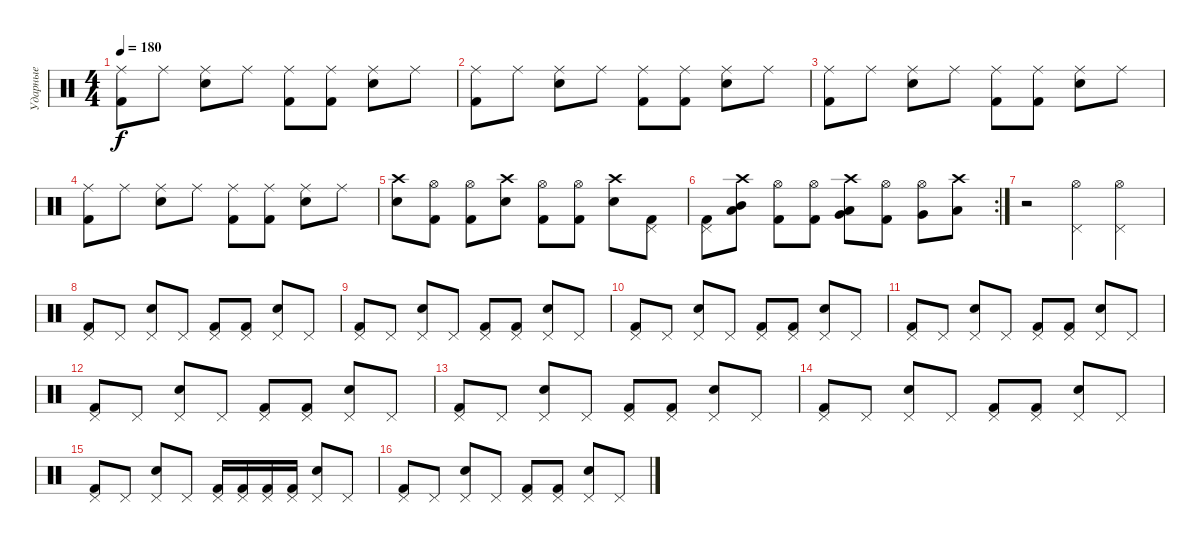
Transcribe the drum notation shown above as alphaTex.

\track ("Ударные" "Ударные") {instrument percussion}
\staff {score}
\articulation defaults
\ts (4 4)
\tempo 180
\clef neutral
\ks c
("Kick (hit) 2" "Ride (middle)").8{dy f} "Ride (middle)".8 ("Electric Snare (hit)" "Ride (middle)").8 "Ride (middle)".8 ("Ride (middle)" "Kick (hit) 2").8 ("Ride (middle)" "Kick (hit) 2").8 ("Electric Snare (hit)" "Ride (middle)").8 "Ride (middle)".8 |
("Kick (hit) 2" "Ride (middle)").8 "Ride (middle)".8 ("Electric Snare (hit)" "Ride (middle)").8 "Ride (middle)".8 ("Ride (middle)" "Kick (hit) 2").8 ("Ride (middle)" "Kick (hit) 2").8 ("Electric Snare (hit)" "Ride (middle)").8 "Ride (middle)".8 |
("Kick (hit) 2" "Ride (middle)").8 "Ride (middle)".8 ("Electric Snare (hit)" "Ride (middle)").8 "Ride (middle)".8 ("Ride (middle)" "Kick (hit) 2").8 ("Ride (middle)" "Kick (hit) 2").8 ("Electric Snare (hit)" "Ride (middle)").8 "Ride (middle)".8 |
("Kick (hit) 2" "Ride (middle)").8 "Ride (middle)".8 ("Electric Snare (hit)" "Ride (middle)").8 "Ride (middle)".8 ("Ride (middle)" "Kick (hit) 2").8 ("Ride (middle)" "Kick (hit) 2").8 ("Electric Snare (hit)" "Ride (middle)").8 "Ride (middle)".8 |
("Electric Snare (hit)" "Crash high (hit)").8 ("Kick (hit) 2" "Hi-Hat (open)").8 ("Kick (hit) 2" "Hi-Hat (open)").8 ("Electric Snare (hit)" "Crash high (hit)").8 ("Kick (hit) 2" "Hi-Hat (open)").8 ("Kick (hit) 2" "Hi-Hat (open)").8 ("Electric Snare (hit)" "Crash high (hit)").8 ("Pedal Hi-Hat (hit)" "Kick (hit) 2").8 |
\rc 2
("Kick (hit) 2" "Pedal Hi-Hat (hit)").8 ("Low Tom (hit)" "Crash high (hit)" "Mid Tom (hit)").8 ("Kick (hit) 2" "Hi-Hat (open)").8 ("Kick (hit) 2" "Hi-Hat (open)").8 ("Very Low Tom (hit)" "Crash high (hit)" "Low Tom (hit)").8 ("Kick (hit) 2" "Hi-Hat (open)").8 ("Very Low Tom (hit)" "Hi-Hat (open)").8 ("Crash high (hit)" "Low Floor Tom (hit)").8 |
r.2 ("Pedal Hi-Hat (hit)" "Hi-Hat (open)").4 ("Pedal Hi-Hat (hit)" "Hi-Hat (open)").4 |
("Kick (hit) 2" "Pedal Hi-Hat (hit)").8 "Pedal Hi-Hat (hit)".8 ("Electric Snare (hit)" "Pedal Hi-Hat (hit)").8 "Pedal Hi-Hat (hit)".8 ("Pedal Hi-Hat (hit)" "Kick (hit) 2").8 ("Pedal Hi-Hat (hit)" "Kick (hit) 2").8 ("Electric Snare (hit)" "Pedal Hi-Hat (hit)").8 "Pedal Hi-Hat (hit)".8 |
("Kick (hit) 2" "Pedal Hi-Hat (hit)").8 "Pedal Hi-Hat (hit)".8 ("Electric Snare (hit)" "Pedal Hi-Hat (hit)").8 "Pedal Hi-Hat (hit)".8 ("Pedal Hi-Hat (hit)" "Kick (hit) 2").8 ("Pedal Hi-Hat (hit)" "Kick (hit) 2").8 ("Electric Snare (hit)" "Pedal Hi-Hat (hit)").8 "Pedal Hi-Hat (hit)".8 |
("Kick (hit) 2" "Pedal Hi-Hat (hit)").8 "Pedal Hi-Hat (hit)".8 ("Electric Snare (hit)" "Pedal Hi-Hat (hit)").8 "Pedal Hi-Hat (hit)".8 ("Pedal Hi-Hat (hit)" "Kick (hit) 2").8 ("Pedal Hi-Hat (hit)" "Kick (hit) 2").8 ("Electric Snare (hit)" "Pedal Hi-Hat (hit)").8 "Pedal Hi-Hat (hit)".8 |
("Kick (hit) 2" "Pedal Hi-Hat (hit)").8 "Pedal Hi-Hat (hit)".8 ("Electric Snare (hit)" "Pedal Hi-Hat (hit)").8 "Pedal Hi-Hat (hit)".8 ("Pedal Hi-Hat (hit)" "Kick (hit) 2").8 ("Pedal Hi-Hat (hit)" "Kick (hit) 2").8 ("Electric Snare (hit)" "Pedal Hi-Hat (hit)").8 "Pedal Hi-Hat (hit)".8 |
("Kick (hit) 2" "Pedal Hi-Hat (hit)").8 "Pedal Hi-Hat (hit)".8 ("Electric Snare (hit)" "Pedal Hi-Hat (hit)").8 "Pedal Hi-Hat (hit)".8 ("Pedal Hi-Hat (hit)" "Kick (hit) 2").8 ("Pedal Hi-Hat (hit)" "Kick (hit) 2").8 ("Electric Snare (hit)" "Pedal Hi-Hat (hit)").8 "Pedal Hi-Hat (hit)".8 |
("Kick (hit) 2" "Pedal Hi-Hat (hit)").8 "Pedal Hi-Hat (hit)".8 ("Electric Snare (hit)" "Pedal Hi-Hat (hit)").8 "Pedal Hi-Hat (hit)".8 ("Pedal Hi-Hat (hit)" "Kick (hit) 2").8 ("Pedal Hi-Hat (hit)" "Kick (hit) 2").8 ("Electric Snare (hit)" "Pedal Hi-Hat (hit)").8 "Pedal Hi-Hat (hit)".8 |
("Kick (hit) 2" "Pedal Hi-Hat (hit)").8 "Pedal Hi-Hat (hit)".8 ("Electric Snare (hit)" "Pedal Hi-Hat (hit)").8 "Pedal Hi-Hat (hit)".8 ("Pedal Hi-Hat (hit)" "Kick (hit) 2").8 ("Pedal Hi-Hat (hit)" "Kick (hit) 2").8 ("Electric Snare (hit)" "Pedal Hi-Hat (hit)").8 "Pedal Hi-Hat (hit)".8 |
("Kick (hit) 2" "Pedal Hi-Hat (hit)").8 "Pedal Hi-Hat (hit)".8 ("Electric Snare (hit)" "Pedal Hi-Hat (hit)").8 "Pedal Hi-Hat (hit)".8 ("Pedal Hi-Hat (hit)" "Kick (hit) 2").16 ("Pedal Hi-Hat (hit)" "Kick (hit) 2").16 ("Kick (hit) 2" "Pedal Hi-Hat (hit)").16 ("Pedal Hi-Hat (hit)" "Kick (hit) 2").16 ("Electric Snare (hit)" "Pedal Hi-Hat (hit)").8 "Pedal Hi-Hat (hit)".8 |
("Kick (hit) 2" "Pedal Hi-Hat (hit)").8 "Pedal Hi-Hat (hit)".8 ("Electric Snare (hit)" "Pedal Hi-Hat (hit)").8 "Pedal Hi-Hat (hit)".8 ("Pedal Hi-Hat (hit)" "Kick (hit) 2").8 ("Pedal Hi-Hat (hit)" "Kick (hit) 2").8 ("Electric Snare (hit)" "Pedal Hi-Hat (hit)").8 "Pedal Hi-Hat (hit)".8
